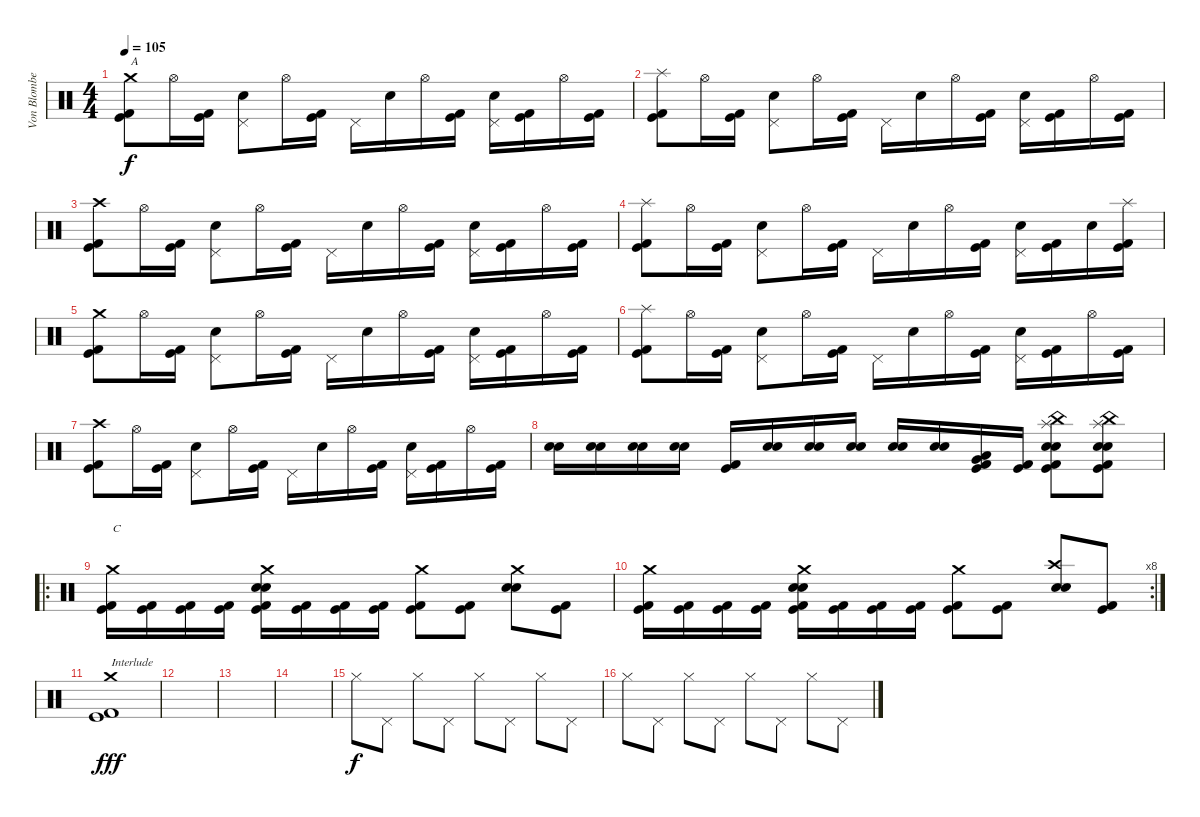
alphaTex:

\track ("Von Blomberg" "Von Blombe") {instrument percussion}
\staff {score}
\articulation defaults
\ts (4 4)
\tempo 105
\clef neutral
\ks c
("Crash medium (hit)" "Kick (hit)" "Kick (hit) 2").8{txt "A" dy f} "Hi-Hat (open)".16 ("Kick (hit)" "Kick (hit) 2").16 ("Pedal Hi-Hat (hit)" "Snare (hit) 2").8 "Hi-Hat (open)".16 ("Kick (hit)" "Kick (hit) 2").16 "Pedal Hi-Hat (hit)".16 "Snare (hit) 2".16 "Hi-Hat (open)".16 ("Kick (hit)" "Kick (hit) 2").16 ("Pedal Hi-Hat (hit)" "Snare (hit) 2").16 ("Kick (hit)" "Kick (hit) 2").16 "Hi-Hat (open)".16 ("Kick (hit)" "Kick (hit) 2").16 |
("Splash (hit)" "Kick (hit)" "Kick (hit) 2").8 "Hi-Hat (open)".16 ("Kick (hit)" "Kick (hit) 2").16 ("Pedal Hi-Hat (hit)" "Snare (hit) 2").8 "Hi-Hat (open)".16 ("Kick (hit)" "Kick (hit) 2").16 "Pedal Hi-Hat (hit)".16 "Snare (hit) 2".16 "Hi-Hat (open)".16 ("Kick (hit)" "Kick (hit) 2").16 ("Pedal Hi-Hat (hit)" "Snare (hit) 2").16 ("Kick (hit)" "Kick (hit) 2").16 "Hi-Hat (open)".16 ("Kick (hit)" "Kick (hit) 2").16 |
("Crash high (hit)" "Kick (hit)" "Kick (hit) 2").8 "Hi-Hat (open)".16 ("Kick (hit)" "Kick (hit) 2").16 ("Pedal Hi-Hat (hit)" "Snare (hit) 2").8 "Hi-Hat (open)".16 ("Kick (hit)" "Kick (hit) 2").16 "Pedal Hi-Hat (hit)".16 "Snare (hit) 2".16 "Hi-Hat (open)".16 ("Kick (hit)" "Kick (hit) 2").16 ("Pedal Hi-Hat (hit)" "Snare (hit) 2").16 ("Kick (hit)" "Kick (hit) 2").16 "Hi-Hat (open)".16 ("Kick (hit)" "Kick (hit) 2").16 |
("Splash (hit)" "Kick (hit)" "Kick (hit) 2").8 "Hi-Hat (open)".16 ("Kick (hit)" "Kick (hit) 2").16 ("Pedal Hi-Hat (hit)" "Snare (hit) 2").8 "Hi-Hat (open)".16 ("Kick (hit)" "Kick (hit) 2").16 "Pedal Hi-Hat (hit)".16 "Snare (hit) 2".16 "Hi-Hat (open)".16 ("Kick (hit)" "Kick (hit) 2").16 ("Pedal Hi-Hat (hit)" "Snare (hit) 2").16 ("Kick (hit)" "Kick (hit) 2").16 "Snare (hit) 2".16 ("Splash (hit)" "Kick (hit)" "Kick (hit) 2").16 |
("Crash medium (hit)" "Kick (hit)" "Kick (hit) 2").8 "Hi-Hat (open)".16 ("Kick (hit)" "Kick (hit) 2").16 ("Pedal Hi-Hat (hit)" "Snare (hit) 2").8 "Hi-Hat (open)".16 ("Kick (hit)" "Kick (hit) 2").16 "Pedal Hi-Hat (hit)".16 "Snare (hit) 2".16 "Hi-Hat (open)".16 ("Kick (hit)" "Kick (hit) 2").16 ("Pedal Hi-Hat (hit)" "Snare (hit) 2").16 ("Kick (hit)" "Kick (hit) 2").16 "Hi-Hat (open)".16 ("Kick (hit)" "Kick (hit) 2").16 |
("Splash (hit)" "Kick (hit)" "Kick (hit) 2").8 "Hi-Hat (open)".16 ("Kick (hit)" "Kick (hit) 2").16 ("Pedal Hi-Hat (hit)" "Snare (hit) 2").8 "Hi-Hat (open)".16 ("Kick (hit)" "Kick (hit) 2").16 "Pedal Hi-Hat (hit)".16 "Snare (hit) 2".16 "Hi-Hat (open)".16 ("Kick (hit)" "Kick (hit) 2").16 ("Pedal Hi-Hat (hit)" "Snare (hit) 2").16 ("Kick (hit)" "Kick (hit) 2").16 "Hi-Hat (open)".16 ("Kick (hit)" "Kick (hit) 2").16 |
("Crash high (hit)" "Kick (hit)" "Kick (hit) 2").8 "Hi-Hat (open)".16 ("Kick (hit)" "Kick (hit) 2").16 ("Pedal Hi-Hat (hit)" "Snare (hit) 2").8 "Hi-Hat (open)".16 ("Kick (hit)" "Kick (hit) 2").16 "Pedal Hi-Hat (hit)".16 "Snare (hit) 2".16 "Hi-Hat (open)".16 ("Kick (hit)" "Kick (hit) 2").16 ("Pedal Hi-Hat (hit)" "Snare (hit) 2").16 ("Kick (hit)" "Kick (hit) 2").16 "Hi-Hat (open)".16 ("Kick (hit)" "Kick (hit) 2").16 |
("Snare (hit) 2" "Electric Snare (hit)").16 ("Snare (hit) 2" "Electric Snare (hit)").16 ("Snare (hit) 2" "Electric Snare (hit)").16 ("Snare (hit) 2" "Electric Snare (hit)").16 ("Kick (hit)" "Kick (hit) 2").16 ("Snare (hit) 2" "Electric Snare (hit)").16 ("Snare (hit) 2" "Electric Snare (hit)").16 ("Snare (hit) 2" "Electric Snare (hit)").16 ("Snare (hit) 2" "Electric Snare (hit)").16 ("Snare (hit) 2" "Electric Snare (hit)").16 ("Low Tom (hit)" "Very Low Tom (hit)" "Kick (hit)" "Kick (hit) 2").16 ("Kick (hit)" "Kick (hit) 2").16 ("Splash (hit)" "China (hit)" "Snare (hit) 2" "Electric Snare (hit)" "Kick (hit)" "Kick (hit) 2").8 ("Splash (hit)" "China (hit)" "Snare (hit) 2" "Electric Snare (hit)" "Kick (hit)" "Kick (hit) 2").8 |
\ro
("Crash medium (hit)" "Kick (hit)" "Kick (hit) 2").16{txt "C"} ("Kick (hit)" "Kick (hit) 2").16 ("Kick (hit)" "Kick (hit) 2").16 ("Kick (hit)" "Kick (hit) 2").16 ("Crash medium (hit)" "Electric Snare (hit)" "Snare (hit) 2" "Kick (hit)" "Kick (hit) 2").16 ("Kick (hit)" "Kick (hit) 2").16 ("Kick (hit)" "Kick (hit) 2").16 ("Kick (hit)" "Kick (hit) 2").16 ("Crash medium (hit)" "Kick (hit)" "Kick (hit) 2").8 ("Kick (hit)" "Kick (hit) 2").8 ("Crash medium (hit)" "Snare (hit) 2" "Electric Snare (hit)").8 ("Kick (hit)" "Kick (hit) 2").8 |
\rc 8
("Crash medium (hit)" "Kick (hit)" "Kick (hit) 2").16 ("Kick (hit)" "Kick (hit) 2").16 ("Kick (hit)" "Kick (hit) 2").16 ("Kick (hit)" "Kick (hit) 2").16 ("Crash medium (hit)" "Electric Snare (hit)" "Snare (hit) 2" "Kick (hit)" "Kick (hit) 2").16 ("Kick (hit)" "Kick (hit) 2").16 ("Kick (hit)" "Kick (hit) 2").16 ("Kick (hit)" "Kick (hit) 2").16 ("Crash medium (hit)" "Kick (hit)" "Kick (hit) 2").8 ("Kick (hit)" "Kick (hit) 2").8 ("Crash high (hit)" "Snare (hit) 2" "Electric Snare (hit)").8 ("Kick (hit)" "Kick (hit) 2").8 |
("Crash medium (hit)" "Kick (hit)" "Kick (hit) 2").1{txt "Interlude" dy fff} |
|
|
|
"Hi-Hat (closed)".8{dy f} "Pedal Hi-Hat (hit)".8 "Hi-Hat (closed)".8 "Pedal Hi-Hat (hit)".8 "Hi-Hat (closed)".8 "Pedal Hi-Hat (hit)".8 "Hi-Hat (closed)".8 "Pedal Hi-Hat (hit)".8 |
"Hi-Hat (closed)".8 "Pedal Hi-Hat (hit)".8 "Hi-Hat (closed)".8 "Pedal Hi-Hat (hit)".8 "Hi-Hat (closed)".8 "Pedal Hi-Hat (hit)".8 "Hi-Hat (closed)".8 "Pedal Hi-Hat (hit)".8
